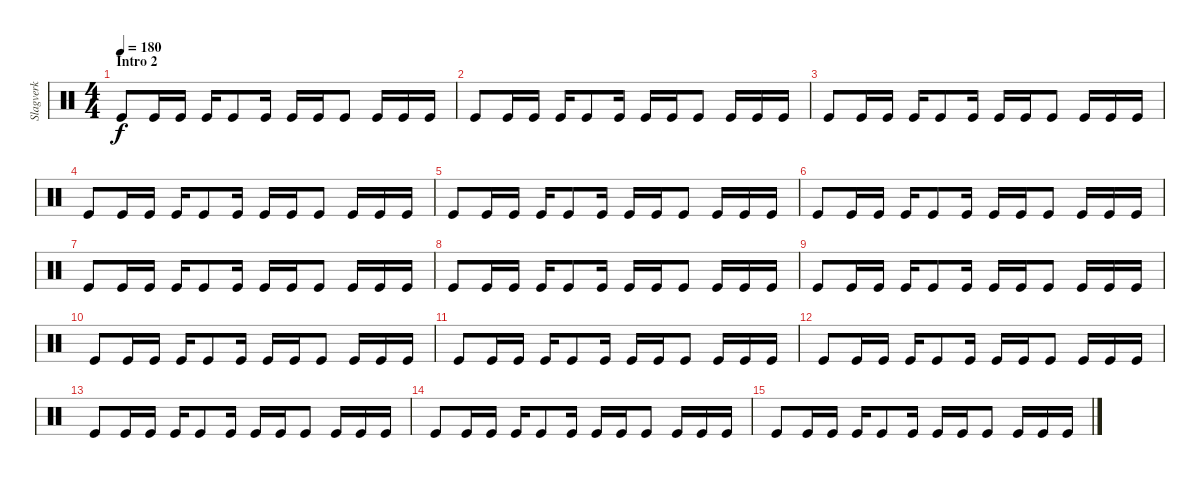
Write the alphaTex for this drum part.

\track ("Slagverk" "Slagverk") {instrument percussion}
\staff {score}
\articulation defaults
\ts (4 4)
\section ("" "Intro 2")
\tempo 180
\clef neutral
\ks c "Kick (hit)".8{dy f} "Kick (hit)".16 "Kick (hit)".16 "Kick (hit)".16 "Kick (hit)".8 "Kick (hit)".16 "Kick (hit)".16 "Kick (hit)".16 "Kick (hit)".8 "Kick (hit)".16 "Kick (hit)".16 "Kick (hit)".16
|
"Kick (hit)".8 "Kick (hit)".16 "Kick (hit)".16 "Kick (hit)".16 "Kick (hit)".8 "Kick (hit)".16 "Kick (hit)".16 "Kick (hit)".16 "Kick (hit)".8 "Kick (hit)".16 "Kick (hit)".16 "Kick (hit)".16 |
"Kick (hit)".8 "Kick (hit)".16 "Kick (hit)".16 "Kick (hit)".16 "Kick (hit)".8 "Kick (hit)".16 "Kick (hit)".16 "Kick (hit)".16 "Kick (hit)".8 "Kick (hit)".16 "Kick (hit)".16 "Kick (hit)".16 |
"Kick (hit)".8 "Kick (hit)".16 "Kick (hit)".16 "Kick (hit)".16 "Kick (hit)".8 "Kick (hit)".16 "Kick (hit)".16 "Kick (hit)".16 "Kick (hit)".8 "Kick (hit)".16 "Kick (hit)".16 "Kick (hit)".16 |
"Kick (hit)".8 "Kick (hit)".16 "Kick (hit)".16 "Kick (hit)".16 "Kick (hit)".8 "Kick (hit)".16 "Kick (hit)".16 "Kick (hit)".16 "Kick (hit)".8 "Kick (hit)".16 "Kick (hit)".16 "Kick (hit)".16 |
"Kick (hit)".8 "Kick (hit)".16 "Kick (hit)".16 "Kick (hit)".16 "Kick (hit)".8 "Kick (hit)".16 "Kick (hit)".16 "Kick (hit)".16 "Kick (hit)".8 "Kick (hit)".16 "Kick (hit)".16 "Kick (hit)".16 |
"Kick (hit)".8 "Kick (hit)".16 "Kick (hit)".16 "Kick (hit)".16 "Kick (hit)".8 "Kick (hit)".16 "Kick (hit)".16 "Kick (hit)".16 "Kick (hit)".8 "Kick (hit)".16 "Kick (hit)".16 "Kick (hit)".16 |
"Kick (hit)".8 "Kick (hit)".16 "Kick (hit)".16 "Kick (hit)".16 "Kick (hit)".8 "Kick (hit)".16 "Kick (hit)".16 "Kick (hit)".16 "Kick (hit)".8 "Kick (hit)".16 "Kick (hit)".16 "Kick (hit)".16 |
"Kick (hit)".8 "Kick (hit)".16 "Kick (hit)".16 "Kick (hit)".16 "Kick (hit)".8 "Kick (hit)".16 "Kick (hit)".16 "Kick (hit)".16 "Kick (hit)".8 "Kick (hit)".16 "Kick (hit)".16 "Kick (hit)".16 |
"Kick (hit)".8 "Kick (hit)".16 "Kick (hit)".16 "Kick (hit)".16 "Kick (hit)".8 "Kick (hit)".16 "Kick (hit)".16 "Kick (hit)".16 "Kick (hit)".8 "Kick (hit)".16 "Kick (hit)".16 "Kick (hit)".16 |
"Kick (hit)".8 "Kick (hit)".16 "Kick (hit)".16 "Kick (hit)".16 "Kick (hit)".8 "Kick (hit)".16 "Kick (hit)".16 "Kick (hit)".16 "Kick (hit)".8 "Kick (hit)".16 "Kick (hit)".16 "Kick (hit)".16 |
"Kick (hit)".8 "Kick (hit)".16 "Kick (hit)".16 "Kick (hit)".16 "Kick (hit)".8 "Kick (hit)".16 "Kick (hit)".16 "Kick (hit)".16 "Kick (hit)".8 "Kick (hit)".16 "Kick (hit)".16 "Kick (hit)".16 |
"Kick (hit)".8 "Kick (hit)".16 "Kick (hit)".16 "Kick (hit)".16 "Kick (hit)".8 "Kick (hit)".16 "Kick (hit)".16 "Kick (hit)".16 "Kick (hit)".8 "Kick (hit)".16 "Kick (hit)".16 "Kick (hit)".16 |
"Kick (hit)".8 "Kick (hit)".16 "Kick (hit)".16 "Kick (hit)".16 "Kick (hit)".8 "Kick (hit)".16 "Kick (hit)".16 "Kick (hit)".16 "Kick (hit)".8 "Kick (hit)".16 "Kick (hit)".16 "Kick (hit)".16 |
"Kick (hit)".8 "Kick (hit)".16 "Kick (hit)".16 "Kick (hit)".16 "Kick (hit)".8 "Kick (hit)".16 "Kick (hit)".16 "Kick (hit)".16 "Kick (hit)".8 "Kick (hit)".16 "Kick (hit)".16 "Kick (hit)".16
